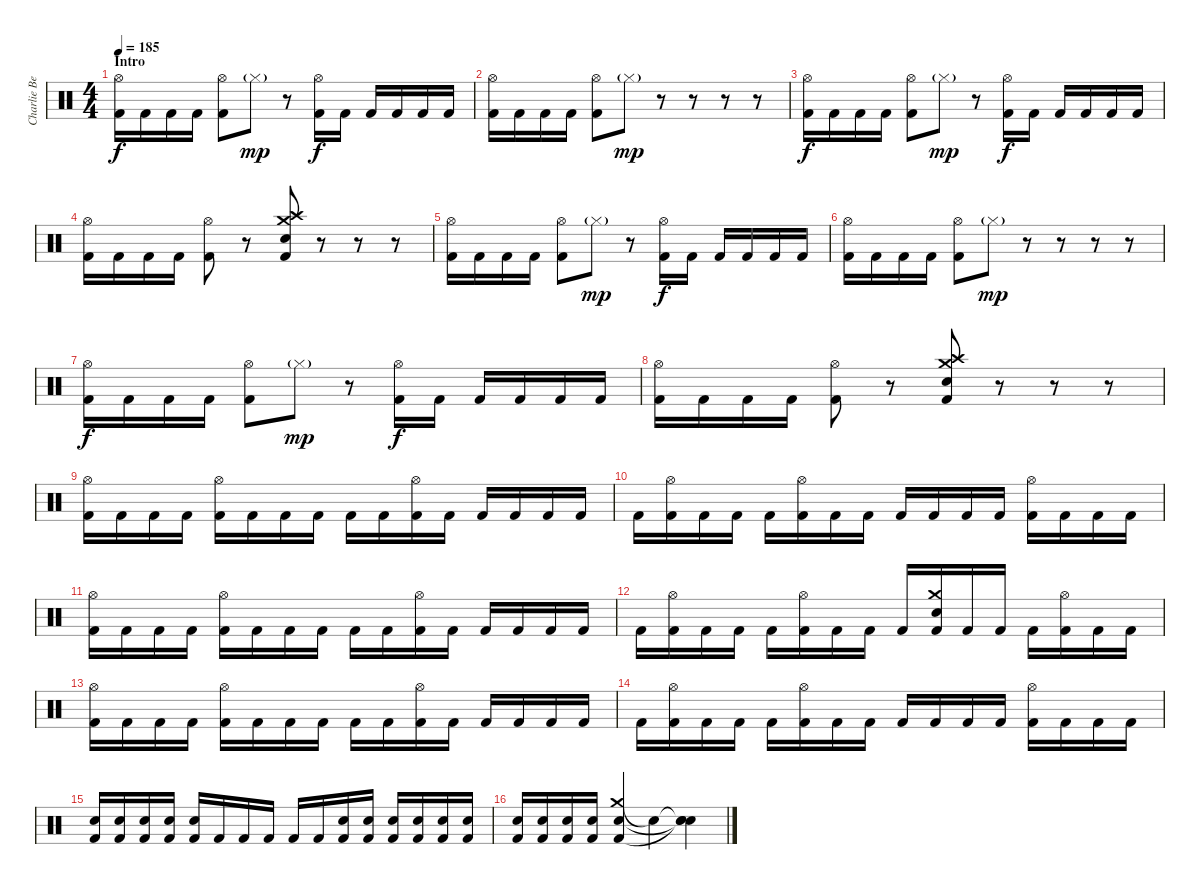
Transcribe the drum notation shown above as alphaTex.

\track ("Charlie Benante" "Charlie Be") {instrument percussion}
\staff {score}
\articulation defaults
\ts (4 4)
\section ("" "Intro")
\tempo 185
\clef neutral
\ks c
("Hi-Hat (open)" "Kick (hit) 2").16{dy f} "Kick (hit) 2".16 "Kick (hit) 2".16 "Kick (hit) 2".16 ("Hi-Hat (open)" "Kick (hit) 2").8 "Hi-Hat (closed)"{g}.8{dy mp} r.8 ("Hi-Hat (open)" "Kick (hit) 2").16{dy f} "Kick (hit) 2".16 "Kick (hit) 2".16 "Kick (hit) 2".16 "Kick (hit) 2".16 "Kick (hit) 2".16 |
("Hi-Hat (open)" "Kick (hit) 2").16 "Kick (hit) 2".16 "Kick (hit) 2".16 "Kick (hit) 2".16 ("Hi-Hat (open)" "Kick (hit) 2").8 "Hi-Hat (closed)"{g}.8{dy mp} r.8 r.8 r.8 r.8 |
("Hi-Hat (open)" "Kick (hit) 2").16{dy f} "Kick (hit) 2".16 "Kick (hit) 2".16 "Kick (hit) 2".16 ("Hi-Hat (open)" "Kick (hit) 2").8 "Hi-Hat (closed)"{g}.8{dy mp} r.8 ("Hi-Hat (open)" "Kick (hit) 2").16{dy f} "Kick (hit) 2".16 "Kick (hit) 2".16 "Kick (hit) 2".16 "Kick (hit) 2".16 "Kick (hit) 2".16 |
("Hi-Hat (open)" "Kick (hit) 2").16 "Kick (hit) 2".16 "Kick (hit) 2".16 "Kick (hit) 2".16 ("Hi-Hat (open)" "Kick (hit) 2").8 r.8 ("Crash medium (hit)" "Crash high (hit)" "Snare (hit) 2" "Kick (hit) 2").8 r.8 r.8 r.8 |
("Hi-Hat (open)" "Kick (hit) 2").16 "Kick (hit) 2".16 "Kick (hit) 2".16 "Kick (hit) 2".16 ("Hi-Hat (open)" "Kick (hit) 2").8 "Hi-Hat (closed)"{g}.8{dy mp} r.8 ("Hi-Hat (open)" "Kick (hit) 2").16{dy f} "Kick (hit) 2".16 "Kick (hit) 2".16 "Kick (hit) 2".16 "Kick (hit) 2".16 "Kick (hit) 2".16 |
("Hi-Hat (open)" "Kick (hit) 2").16 "Kick (hit) 2".16 "Kick (hit) 2".16 "Kick (hit) 2".16 ("Hi-Hat (open)" "Kick (hit) 2").8 "Hi-Hat (closed)"{g}.8{dy mp} r.8 r.8 r.8 r.8 |
("Hi-Hat (open)" "Kick (hit) 2").16{dy f} "Kick (hit) 2".16 "Kick (hit) 2".16 "Kick (hit) 2".16 ("Hi-Hat (open)" "Kick (hit) 2").8 "Hi-Hat (closed)"{g}.8{dy mp} r.8 ("Hi-Hat (open)" "Kick (hit) 2").16{dy f} "Kick (hit) 2".16 "Kick (hit) 2".16 "Kick (hit) 2".16 "Kick (hit) 2".16 "Kick (hit) 2".16 |
("Hi-Hat (open)" "Kick (hit) 2").16 "Kick (hit) 2".16 "Kick (hit) 2".16 "Kick (hit) 2".16 ("Hi-Hat (open)" "Kick (hit) 2").8 r.8 ("Crash medium (hit)" "Crash high (hit)" "Snare (hit) 2" "Kick (hit) 2").8 r.8 r.8 r.8 |
("Hi-Hat (open)" "Kick (hit) 2").16 "Kick (hit) 2".16 "Kick (hit) 2".16 "Kick (hit) 2".16 ("Hi-Hat (open)" "Kick (hit) 2").16 "Kick (hit) 2".16 "Kick (hit) 2".16 "Kick (hit) 2".16 "Kick (hit) 2".16 "Kick (hit) 2".16 ("Hi-Hat (open)" "Kick (hit) 2").16 "Kick (hit) 2".16 "Kick (hit) 2".16 "Kick (hit) 2".16 "Kick (hit) 2".16 "Kick (hit) 2".16 |
"Kick (hit) 2".16 ("Hi-Hat (open)" "Kick (hit) 2").16 "Kick (hit) 2".16 "Kick (hit) 2".16 "Kick (hit) 2".16 ("Hi-Hat (open)" "Kick (hit) 2").16 "Kick (hit) 2".16 "Kick (hit) 2".16 "Kick (hit) 2".16 "Kick (hit) 2".16 "Kick (hit) 2".16 "Kick (hit) 2".16 ("Hi-Hat (open)" "Kick (hit) 2").16 "Kick (hit) 2".16 "Kick (hit) 2".16 "Kick (hit) 2".16 |
("Hi-Hat (open)" "Kick (hit) 2").16 "Kick (hit) 2".16 "Kick (hit) 2".16 "Kick (hit) 2".16 ("Hi-Hat (open)" "Kick (hit) 2").16 "Kick (hit) 2".16 "Kick (hit) 2".16 "Kick (hit) 2".16 "Kick (hit) 2".16 "Kick (hit) 2".16 ("Hi-Hat (open)" "Kick (hit) 2").16 "Kick (hit) 2".16 "Kick (hit) 2".16 "Kick (hit) 2".16 "Kick (hit) 2".16 "Kick (hit) 2".16 |
"Kick (hit) 2".16 ("Hi-Hat (open)" "Kick (hit) 2").16 "Kick (hit) 2".16 "Kick (hit) 2".16 "Kick (hit) 2".16 ("Hi-Hat (open)" "Kick (hit) 2").16 "Kick (hit) 2".16 "Kick (hit) 2".16 "Kick (hit) 2".16 ("Crash medium (hit)" "Snare (hit) 2" "Kick (hit) 2").16 "Kick (hit) 2".16 "Kick (hit) 2".16 "Kick (hit) 2".16 ("Hi-Hat (open)" "Kick (hit) 2").16 "Kick (hit) 2".16 "Kick (hit) 2".16 |
("Hi-Hat (open)" "Kick (hit) 2").16 "Kick (hit) 2".16 "Kick (hit) 2".16 "Kick (hit) 2".16 ("Hi-Hat (open)" "Kick (hit) 2").16 "Kick (hit) 2".16 "Kick (hit) 2".16 "Kick (hit) 2".16 "Kick (hit) 2".16 "Kick (hit) 2".16 ("Hi-Hat (open)" "Kick (hit) 2").16 "Kick (hit) 2".16 "Kick (hit) 2".16 "Kick (hit) 2".16 "Kick (hit) 2".16 "Kick (hit) 2".16 |
"Kick (hit) 2".16 ("Hi-Hat (open)" "Kick (hit) 2").16 "Kick (hit) 2".16 "Kick (hit) 2".16 "Kick (hit) 2".16 ("Hi-Hat (open)" "Kick (hit) 2").16 "Kick (hit) 2".16 "Kick (hit) 2".16 "Kick (hit) 2".16 "Kick (hit) 2".16 "Kick (hit) 2".16 "Kick (hit) 2".16 ("Hi-Hat (open)" "Kick (hit) 2").16 "Kick (hit) 2".16 "Kick (hit) 2".16 "Kick (hit) 2".16 |
("Snare (hit) 2" "Kick (hit) 2").16 ("Snare (hit) 2" "Kick (hit) 2").16 ("Snare (hit) 2" "Kick (hit) 2").16 ("Snare (hit) 2" "Kick (hit) 2").16 ("Snare (hit) 2" "Kick (hit) 2").16 "Kick (hit) 2".16 "Kick (hit) 2".16 "Kick (hit) 2".16 "Kick (hit) 2".16 "Kick (hit) 2".16 ("Snare (hit) 2" "Kick (hit) 2").16 ("Snare (hit) 2" "Kick (hit) 2").16 ("Snare (hit) 2" "Kick (hit) 2").16 ("Snare (hit) 2" "Kick (hit) 2").16 ("Snare (hit) 2" "Kick (hit) 2").16 ("Snare (hit) 2" "Kick (hit) 2").16 |
("Snare (hit) 2" "Kick (hit) 2").16 ("Snare (hit) 2" "Kick (hit) 2").16 ("Snare (hit) 2" "Kick (hit) 2").16 ("Snare (hit) 2" "Kick (hit) 2").16 ("Crash medium (hit)" "Snare (hit) 2" "Kick (hit) 2").4 "Snare (hit)"{t}.4 ("Snare (hit)"{t} "Snare (hit)"{t} "Snare (hit)"{t}).4
